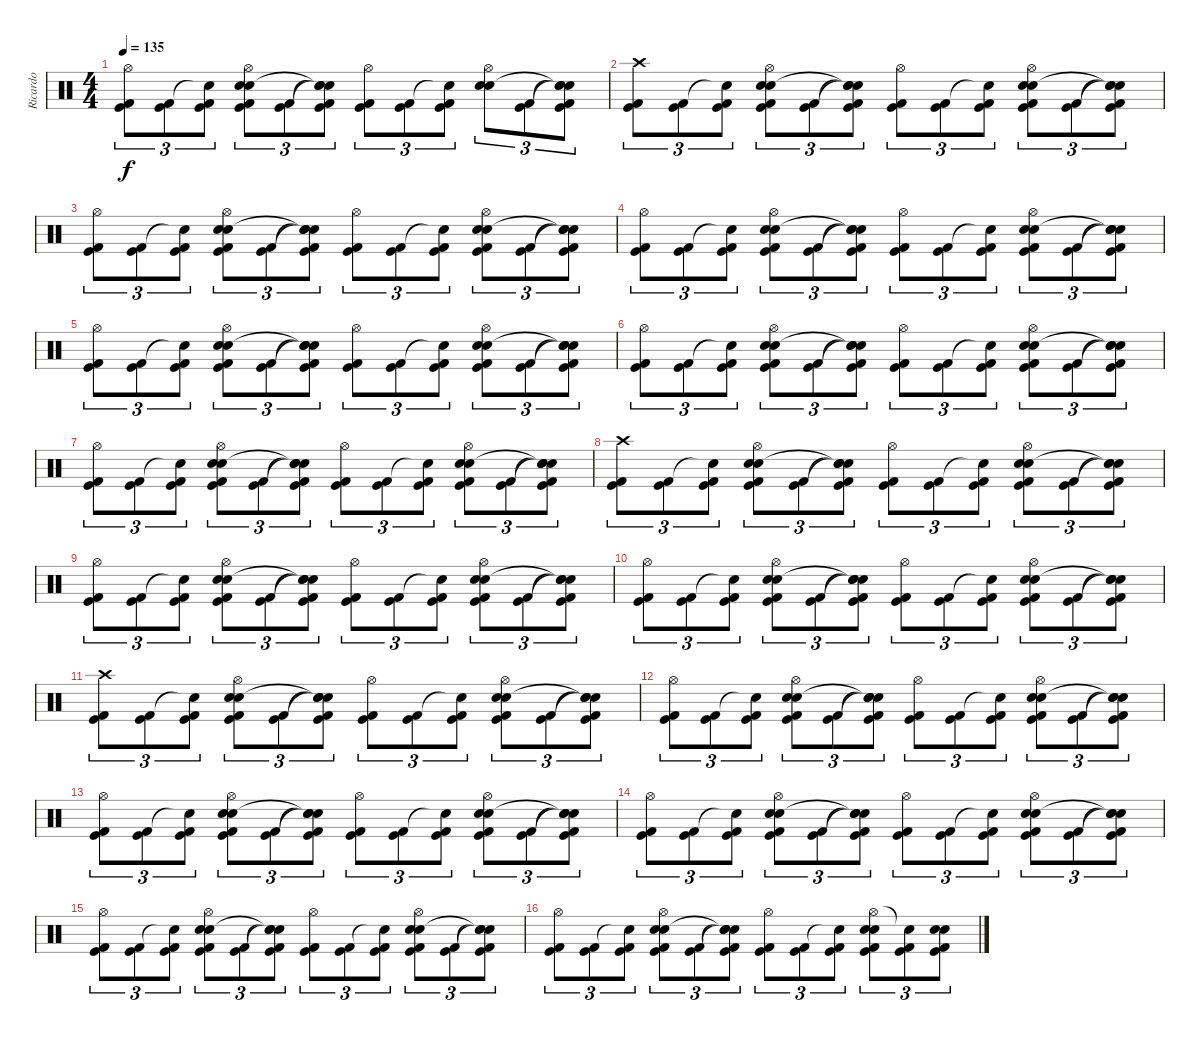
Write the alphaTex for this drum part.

\track ("Ricardo" "Ricardo") {instrument percussion}
\staff {score}
\articulation defaults
\ts (4 4)
\tempo 135
\clef neutral
\ks c
("Hi-Hat (open)" "Kick (hit) 2" "Kick (hit)").8{tu (3 2) dy f} ("Kick (hit) 2" "Kick (hit)").8{tu (3 2)} ("Snare (hit)"{t} "Kick (hit) 2" "Kick (hit)").8{tu (3 2)} ("Hi-Hat (open)" "Electric Snare (hit)" "Snare (hit) 2" "Kick (hit) 2" "Kick (hit)").8{tu (3 2)} ("Kick (hit) 2" "Kick (hit)").8{tu (3 2)} ("Snare (hit)"{t} "Snare (hit)"{t} "Snare (hit)"{t} "Kick (hit) 2" "Kick (hit)").8{tu (3 2)} ("Hi-Hat (open)" "Kick (hit) 2" "Kick (hit)").8{tu (3 2)} ("Kick (hit) 2" "Kick (hit)").8{tu (3 2)} ("Snare (hit)"{t} "Kick (hit) 2" "Kick (hit)").8{tu (3 2)} ("Hi-Hat (open)" "Electric Snare (hit)" "Snare (hit) 2").8{tu (3 2)} ("Kick (hit) 2" "Kick (hit)").8{tu (3 2)} ("Snare (hit)"{t} "Snare (hit)"{t} "Snare (hit)"{t} "Kick (hit) 2" "Kick (hit)").8{tu (3 2)} |
("Crash high (hit)" "Kick (hit) 2" "Kick (hit)").8{tu (3 2)} ("Kick (hit) 2" "Kick (hit)").8{tu (3 2)} ("Snare (hit)"{t} "Kick (hit) 2" "Kick (hit)").8{tu (3 2)} ("Hi-Hat (open)" "Electric Snare (hit)" "Snare (hit) 2" "Kick (hit) 2" "Kick (hit)").8{tu (3 2)} ("Kick (hit) 2" "Kick (hit)").8{tu (3 2)} ("Snare (hit)"{t} "Snare (hit)"{t} "Snare (hit)"{t} "Kick (hit) 2" "Kick (hit)").8{tu (3 2)} ("Hi-Hat (open)" "Kick (hit) 2" "Kick (hit)").8{tu (3 2)} ("Kick (hit) 2" "Kick (hit)").8{tu (3 2)} ("Snare (hit)"{t} "Kick (hit) 2" "Kick (hit)").8{tu (3 2)} ("Hi-Hat (open)" "Electric Snare (hit)" "Snare (hit) 2" "Kick (hit) 2" "Kick (hit)").8{tu (3 2)} ("Kick (hit) 2" "Kick (hit)").8{tu (3 2)} ("Snare (hit)"{t} "Snare (hit)"{t} "Snare (hit)"{t} "Kick (hit) 2" "Kick (hit)").8{tu (3 2)} |
("Hi-Hat (open)" "Kick (hit) 2" "Kick (hit)").8{tu (3 2)} ("Kick (hit) 2" "Kick (hit)").8{tu (3 2)} ("Snare (hit)"{t} "Kick (hit) 2" "Kick (hit)").8{tu (3 2)} ("Hi-Hat (open)" "Electric Snare (hit)" "Snare (hit) 2" "Kick (hit) 2" "Kick (hit)").8{tu (3 2)} ("Kick (hit) 2" "Kick (hit)").8{tu (3 2)} ("Snare (hit)"{t} "Snare (hit)"{t} "Snare (hit)"{t} "Kick (hit) 2" "Kick (hit)").8{tu (3 2)} ("Hi-Hat (open)" "Kick (hit) 2" "Kick (hit)").8{tu (3 2)} ("Kick (hit) 2" "Kick (hit)").8{tu (3 2)} ("Snare (hit)"{t} "Kick (hit) 2" "Kick (hit)").8{tu (3 2)} ("Hi-Hat (open)" "Electric Snare (hit)" "Snare (hit) 2" "Kick (hit) 2" "Kick (hit)").8{tu (3 2)} ("Kick (hit) 2" "Kick (hit)").8{tu (3 2)} ("Snare (hit)"{t} "Snare (hit)"{t} "Snare (hit)"{t} "Kick (hit) 2" "Kick (hit)").8{tu (3 2)} |
("Hi-Hat (open)" "Kick (hit) 2" "Kick (hit)").8{tu (3 2)} ("Kick (hit) 2" "Kick (hit)").8{tu (3 2)} ("Snare (hit)"{t} "Kick (hit) 2" "Kick (hit)").8{tu (3 2)} ("Hi-Hat (open)" "Electric Snare (hit)" "Snare (hit) 2" "Kick (hit) 2" "Kick (hit)").8{tu (3 2)} ("Kick (hit) 2" "Kick (hit)").8{tu (3 2)} ("Snare (hit)"{t} "Snare (hit)"{t} "Snare (hit)"{t} "Kick (hit) 2" "Kick (hit)").8{tu (3 2)} ("Hi-Hat (open)" "Kick (hit) 2" "Kick (hit)").8{tu (3 2)} ("Kick (hit) 2" "Kick (hit)").8{tu (3 2)} ("Snare (hit)"{t} "Kick (hit) 2" "Kick (hit)").8{tu (3 2)} ("Hi-Hat (open)" "Electric Snare (hit)" "Snare (hit) 2" "Kick (hit) 2" "Kick (hit)").8{tu (3 2)} ("Kick (hit) 2" "Kick (hit)").8{tu (3 2)} ("Snare (hit)"{t} "Snare (hit)"{t} "Snare (hit)"{t} "Kick (hit) 2" "Kick (hit)").8{tu (3 2)} |
("Hi-Hat (open)" "Kick (hit) 2" "Kick (hit)").8{tu (3 2)} ("Kick (hit) 2" "Kick (hit)").8{tu (3 2)} ("Snare (hit)"{t} "Kick (hit) 2" "Kick (hit)").8{tu (3 2)} ("Hi-Hat (open)" "Electric Snare (hit)" "Snare (hit) 2" "Kick (hit) 2" "Kick (hit)").8{tu (3 2)} ("Kick (hit) 2" "Kick (hit)").8{tu (3 2)} ("Snare (hit)"{t} "Snare (hit)"{t} "Snare (hit)"{t} "Kick (hit) 2" "Kick (hit)").8{tu (3 2)} ("Hi-Hat (open)" "Kick (hit) 2" "Kick (hit)").8{tu (3 2)} ("Kick (hit) 2" "Kick (hit)").8{tu (3 2)} ("Snare (hit)"{t} "Kick (hit) 2" "Kick (hit)").8{tu (3 2)} ("Hi-Hat (open)" "Electric Snare (hit)" "Snare (hit) 2" "Kick (hit) 2" "Kick (hit)").8{tu (3 2)} ("Kick (hit) 2" "Kick (hit)").8{tu (3 2)} ("Snare (hit)"{t} "Snare (hit)"{t} "Snare (hit)"{t} "Kick (hit) 2" "Kick (hit)").8{tu (3 2)} |
("Hi-Hat (open)" "Kick (hit) 2" "Kick (hit)").8{tu (3 2)} ("Kick (hit) 2" "Kick (hit)").8{tu (3 2)} ("Snare (hit)"{t} "Kick (hit) 2" "Kick (hit)").8{tu (3 2)} ("Hi-Hat (open)" "Electric Snare (hit)" "Snare (hit) 2" "Kick (hit) 2" "Kick (hit)").8{tu (3 2)} ("Kick (hit) 2" "Kick (hit)").8{tu (3 2)} ("Snare (hit)"{t} "Snare (hit)"{t} "Snare (hit)"{t} "Kick (hit) 2" "Kick (hit)").8{tu (3 2)} ("Hi-Hat (open)" "Kick (hit) 2" "Kick (hit)").8{tu (3 2)} ("Kick (hit) 2" "Kick (hit)").8{tu (3 2)} ("Snare (hit)"{t} "Kick (hit) 2" "Kick (hit)").8{tu (3 2)} ("Hi-Hat (open)" "Electric Snare (hit)" "Snare (hit) 2" "Kick (hit) 2" "Kick (hit)").8{tu (3 2)} ("Kick (hit) 2" "Kick (hit)").8{tu (3 2)} ("Snare (hit)"{t} "Snare (hit)"{t} "Snare (hit)"{t} "Kick (hit) 2" "Kick (hit)").8{tu (3 2)} |
("Hi-Hat (open)" "Kick (hit) 2" "Kick (hit)").8{tu (3 2)} ("Kick (hit) 2" "Kick (hit)").8{tu (3 2)} ("Snare (hit)"{t} "Kick (hit) 2" "Kick (hit)").8{tu (3 2)} ("Hi-Hat (open)" "Electric Snare (hit)" "Snare (hit) 2" "Kick (hit) 2" "Kick (hit)").8{tu (3 2)} ("Kick (hit) 2" "Kick (hit)").8{tu (3 2)} ("Snare (hit)"{t} "Snare (hit)"{t} "Snare (hit)"{t} "Kick (hit) 2" "Kick (hit)").8{tu (3 2)} ("Hi-Hat (open)" "Kick (hit) 2" "Kick (hit)").8{tu (3 2)} ("Kick (hit) 2" "Kick (hit)").8{tu (3 2)} ("Snare (hit)"{t} "Kick (hit) 2" "Kick (hit)").8{tu (3 2)} ("Hi-Hat (open)" "Electric Snare (hit)" "Snare (hit) 2" "Kick (hit) 2" "Kick (hit)").8{tu (3 2)} ("Kick (hit) 2" "Kick (hit)").8{tu (3 2)} ("Snare (hit)"{t} "Snare (hit)"{t} "Snare (hit)"{t} "Kick (hit) 2" "Kick (hit)").8{tu (3 2)} |
("Crash high (hit)" "Kick (hit) 2" "Kick (hit)").8{tu (3 2)} ("Kick (hit) 2" "Kick (hit)").8{tu (3 2)} ("Snare (hit)"{t} "Kick (hit) 2" "Kick (hit)").8{tu (3 2)} ("Hi-Hat (open)" "Electric Snare (hit)" "Snare (hit) 2" "Kick (hit) 2" "Kick (hit)").8{tu (3 2)} ("Kick (hit) 2" "Kick (hit)").8{tu (3 2)} ("Snare (hit)"{t} "Snare (hit)"{t} "Snare (hit)"{t} "Kick (hit) 2" "Kick (hit)").8{tu (3 2)} ("Hi-Hat (open)" "Kick (hit) 2" "Kick (hit)").8{tu (3 2)} ("Kick (hit) 2" "Kick (hit)").8{tu (3 2)} ("Snare (hit)"{t} "Kick (hit) 2" "Kick (hit)").8{tu (3 2)} ("Hi-Hat (open)" "Electric Snare (hit)" "Snare (hit) 2" "Kick (hit) 2" "Kick (hit)").8{tu (3 2)} ("Kick (hit) 2" "Kick (hit)").8{tu (3 2)} ("Snare (hit)"{t} "Snare (hit)"{t} "Snare (hit)"{t} "Kick (hit) 2" "Kick (hit)").8{tu (3 2)} |
("Hi-Hat (open)" "Kick (hit) 2" "Kick (hit)").8{tu (3 2)} ("Kick (hit) 2" "Kick (hit)").8{tu (3 2)} ("Snare (hit)"{t} "Kick (hit) 2" "Kick (hit)").8{tu (3 2)} ("Hi-Hat (open)" "Electric Snare (hit)" "Snare (hit) 2" "Kick (hit) 2" "Kick (hit)").8{tu (3 2)} ("Kick (hit) 2" "Kick (hit)").8{tu (3 2)} ("Snare (hit)"{t} "Snare (hit)"{t} "Snare (hit)"{t} "Kick (hit) 2" "Kick (hit)").8{tu (3 2)} ("Hi-Hat (open)" "Kick (hit) 2" "Kick (hit)").8{tu (3 2)} ("Kick (hit) 2" "Kick (hit)").8{tu (3 2)} ("Snare (hit)"{t} "Kick (hit) 2" "Kick (hit)").8{tu (3 2)} ("Hi-Hat (open)" "Electric Snare (hit)" "Snare (hit) 2" "Kick (hit) 2" "Kick (hit)").8{tu (3 2)} ("Kick (hit) 2" "Kick (hit)").8{tu (3 2)} ("Snare (hit)"{t} "Snare (hit)"{t} "Snare (hit)"{t} "Kick (hit) 2" "Kick (hit)").8{tu (3 2)} |
("Hi-Hat (open)" "Kick (hit) 2" "Kick (hit)").8{tu (3 2)} ("Kick (hit) 2" "Kick (hit)").8{tu (3 2)} ("Snare (hit)"{t} "Kick (hit) 2" "Kick (hit)").8{tu (3 2)} ("Hi-Hat (open)" "Electric Snare (hit)" "Snare (hit) 2" "Kick (hit) 2" "Kick (hit)").8{tu (3 2)} ("Kick (hit) 2" "Kick (hit)").8{tu (3 2)} ("Snare (hit)"{t} "Snare (hit)"{t} "Snare (hit)"{t} "Kick (hit) 2" "Kick (hit)").8{tu (3 2)} ("Hi-Hat (open)" "Kick (hit) 2" "Kick (hit)").8{tu (3 2)} ("Kick (hit) 2" "Kick (hit)").8{tu (3 2)} ("Snare (hit)"{t} "Kick (hit) 2" "Kick (hit)").8{tu (3 2)} ("Hi-Hat (open)" "Electric Snare (hit)" "Snare (hit) 2" "Kick (hit) 2" "Kick (hit)").8{tu (3 2)} ("Kick (hit) 2" "Kick (hit)").8{tu (3 2)} ("Snare (hit)"{t} "Snare (hit)"{t} "Snare (hit)"{t} "Kick (hit) 2" "Kick (hit)").8{tu (3 2)} |
("Crash high (hit)" "Kick (hit) 2" "Kick (hit)").8{tu (3 2)} ("Kick (hit) 2" "Kick (hit)").8{tu (3 2)} ("Snare (hit)"{t} "Kick (hit) 2" "Kick (hit)").8{tu (3 2)} ("Hi-Hat (open)" "Electric Snare (hit)" "Snare (hit) 2" "Kick (hit) 2" "Kick (hit)").8{tu (3 2)} ("Kick (hit) 2" "Kick (hit)").8{tu (3 2)} ("Snare (hit)"{t} "Snare (hit)"{t} "Snare (hit)"{t} "Kick (hit) 2" "Kick (hit)").8{tu (3 2)} ("Hi-Hat (open)" "Kick (hit) 2" "Kick (hit)").8{tu (3 2)} ("Kick (hit) 2" "Kick (hit)").8{tu (3 2)} ("Snare (hit)"{t} "Kick (hit) 2" "Kick (hit)").8{tu (3 2)} ("Hi-Hat (open)" "Electric Snare (hit)" "Snare (hit) 2" "Kick (hit) 2" "Kick (hit)").8{tu (3 2)} ("Kick (hit) 2" "Kick (hit)").8{tu (3 2)} ("Snare (hit)"{t} "Snare (hit)"{t} "Snare (hit)"{t} "Kick (hit) 2" "Kick (hit)").8{tu (3 2)} |
("Hi-Hat (open)" "Kick (hit) 2" "Kick (hit)").8{tu (3 2)} ("Kick (hit) 2" "Kick (hit)").8{tu (3 2)} ("Snare (hit)"{t} "Kick (hit) 2" "Kick (hit)").8{tu (3 2)} ("Hi-Hat (open)" "Electric Snare (hit)" "Snare (hit) 2" "Kick (hit) 2" "Kick (hit)").8{tu (3 2)} ("Kick (hit) 2" "Kick (hit)").8{tu (3 2)} ("Snare (hit)"{t} "Snare (hit)"{t} "Snare (hit)"{t} "Kick (hit) 2" "Kick (hit)").8{tu (3 2)} ("Hi-Hat (open)" "Kick (hit) 2" "Kick (hit)").8{tu (3 2)} ("Kick (hit) 2" "Kick (hit)").8{tu (3 2)} ("Snare (hit)"{t} "Kick (hit) 2" "Kick (hit)").8{tu (3 2)} ("Hi-Hat (open)" "Electric Snare (hit)" "Snare (hit) 2" "Kick (hit) 2" "Kick (hit)").8{tu (3 2)} ("Kick (hit) 2" "Kick (hit)").8{tu (3 2)} ("Snare (hit)"{t} "Snare (hit)"{t} "Snare (hit)"{t} "Kick (hit) 2" "Kick (hit)").8{tu (3 2)} |
("Hi-Hat (open)" "Kick (hit) 2" "Kick (hit)").8{tu (3 2)} ("Kick (hit) 2" "Kick (hit)").8{tu (3 2)} ("Snare (hit)"{t} "Kick (hit) 2" "Kick (hit)").8{tu (3 2)} ("Hi-Hat (open)" "Electric Snare (hit)" "Snare (hit) 2" "Kick (hit) 2" "Kick (hit)").8{tu (3 2)} ("Kick (hit) 2" "Kick (hit)").8{tu (3 2)} ("Snare (hit)"{t} "Snare (hit)"{t} "Snare (hit)"{t} "Kick (hit) 2" "Kick (hit)").8{tu (3 2)} ("Hi-Hat (open)" "Kick (hit) 2" "Kick (hit)").8{tu (3 2)} ("Kick (hit) 2" "Kick (hit)").8{tu (3 2)} ("Snare (hit)"{t} "Kick (hit) 2" "Kick (hit)").8{tu (3 2)} ("Hi-Hat (open)" "Electric Snare (hit)" "Snare (hit) 2" "Kick (hit) 2" "Kick (hit)").8{tu (3 2)} ("Kick (hit) 2" "Kick (hit)").8{tu (3 2)} ("Snare (hit)"{t} "Snare (hit)"{t} "Snare (hit)"{t} "Kick (hit) 2" "Kick (hit)").8{tu (3 2)} |
("Hi-Hat (open)" "Kick (hit) 2" "Kick (hit)").8{tu (3 2)} ("Kick (hit) 2" "Kick (hit)").8{tu (3 2)} ("Snare (hit)"{t} "Kick (hit) 2" "Kick (hit)").8{tu (3 2)} ("Hi-Hat (open)" "Electric Snare (hit)" "Snare (hit) 2" "Kick (hit) 2" "Kick (hit)").8{tu (3 2)} ("Kick (hit) 2" "Kick (hit)").8{tu (3 2)} ("Snare (hit)"{t} "Snare (hit)"{t} "Snare (hit)"{t} "Kick (hit) 2" "Kick (hit)").8{tu (3 2)} ("Hi-Hat (open)" "Kick (hit) 2" "Kick (hit)").8{tu (3 2)} ("Kick (hit) 2" "Kick (hit)").8{tu (3 2)} ("Snare (hit)"{t} "Kick (hit) 2" "Kick (hit)").8{tu (3 2)} ("Hi-Hat (open)" "Electric Snare (hit)" "Snare (hit) 2" "Kick (hit) 2" "Kick (hit)").8{tu (3 2)} ("Kick (hit) 2" "Kick (hit)").8{tu (3 2)} ("Snare (hit)"{t} "Snare (hit)"{t} "Snare (hit)"{t} "Kick (hit) 2" "Kick (hit)").8{tu (3 2)} |
("Hi-Hat (open)" "Kick (hit) 2" "Kick (hit)").8{tu (3 2)} ("Kick (hit) 2" "Kick (hit)").8{tu (3 2)} ("Snare (hit)"{t} "Kick (hit) 2" "Kick (hit)").8{tu (3 2)} ("Hi-Hat (open)" "Electric Snare (hit)" "Snare (hit) 2" "Kick (hit) 2" "Kick (hit)").8{tu (3 2)} ("Kick (hit) 2" "Kick (hit)").8{tu (3 2)} ("Snare (hit)"{t} "Snare (hit)"{t} "Snare (hit)"{t} "Kick (hit) 2" "Kick (hit)").8{tu (3 2)} ("Hi-Hat (open)" "Kick (hit) 2" "Kick (hit)").8{tu (3 2)} ("Kick (hit) 2" "Kick (hit)").8{tu (3 2)} ("Snare (hit)"{t} "Kick (hit) 2" "Kick (hit)").8{tu (3 2)} ("Hi-Hat (open)" "Electric Snare (hit)" "Snare (hit) 2" "Kick (hit) 2" "Kick (hit)").8{tu (3 2)} ("Kick (hit) 2" "Kick (hit)").8{tu (3 2)} ("Snare (hit)"{t} "Snare (hit)"{t} "Snare (hit)"{t} "Kick (hit) 2" "Kick (hit)").8{tu (3 2)} |
("Hi-Hat (open)" "Kick (hit) 2" "Kick (hit)").8{tu (3 2)} ("Kick (hit) 2" "Kick (hit)").8{tu (3 2)} ("Snare (hit)"{t} "Kick (hit) 2" "Kick (hit)").8{tu (3 2)} ("Hi-Hat (open)" "Electric Snare (hit)" "Snare (hit) 2" "Kick (hit) 2" "Kick (hit)").8{tu (3 2)} ("Kick (hit) 2" "Kick (hit)").8{tu (3 2)} ("Snare (hit)"{t} "Snare (hit)"{t} "Snare (hit)"{t} "Kick (hit) 2" "Kick (hit)").8{tu (3 2)} ("Hi-Hat (open)" "Kick (hit) 2" "Kick (hit)").8{tu (3 2)} ("Kick (hit) 2" "Kick (hit)").8{tu (3 2)} ("Snare (hit)"{t} "Kick (hit) 2" "Kick (hit)").8{tu (3 2)} ("Hi-Hat (open)" "Electric Snare (hit)" "Snare (hit) 2" "Kick (hit) 2" "Kick (hit)").8{tu (3 2)} ("Snare (hit)"{t} "Kick (hit) 2" "Kick (hit)").8{tu (3 2)} ("Electric Snare (hit)" "Snare (hit) 2" "Kick (hit) 2" "Kick (hit)").8{tu (3 2)}
